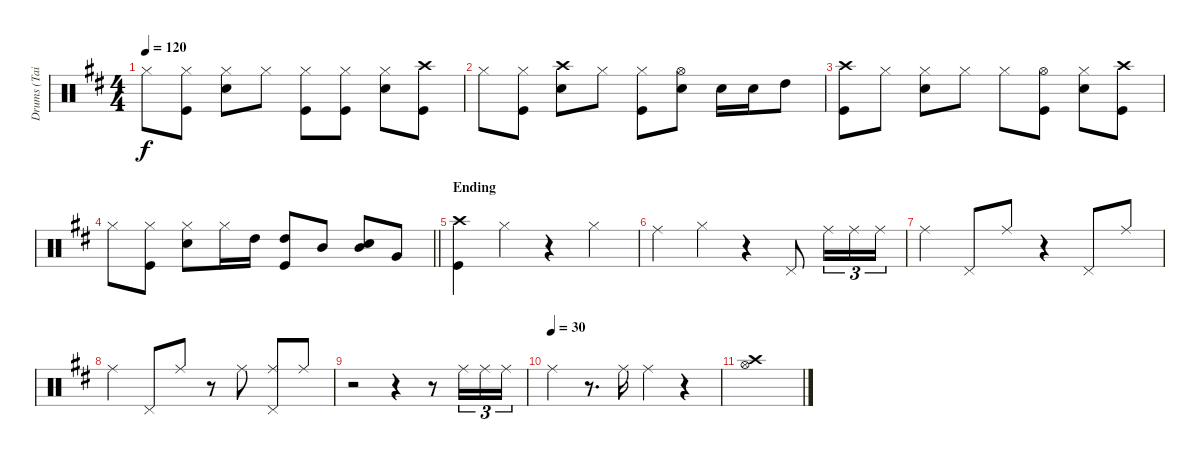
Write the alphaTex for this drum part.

\track ("Drums (Tainaka Ritsu)" "Drums (Tai") {instrument percussion}
\staff {score}
\articulation defaults
\ts (4 4)
\tempo 120
\clef neutral
\ks d "Hi-Hat (closed)".8{dy f}
("Hi-Hat (closed)" "Kick (hit)").8 ("Hi-Hat (closed)" "Snare (hit) 2").8 "Hi-Hat (closed)".8 ("Hi-Hat (closed)" "Kick (hit)").8 ("Hi-Hat (closed)" "Kick (hit)").8 ("Hi-Hat (closed)" "Snare (hit) 2").8 ("Crash high (hit)" "Kick (hit)").8 |
"Hi-Hat (closed)".8 ("Hi-Hat (closed)" "Kick (hit)").8 ("Crash high (hit)" "Snare (hit) 2").8 "Hi-Hat (closed)".8 ("Hi-Hat (closed)" "Kick (hit)").8 ("Hi-Hat (open)" "Snare (hit) 2").8 "Snare (hit) 2".16 "Snare (hit) 2".16 "High Tom (hit)".8 |
("Crash high (hit)" "Kick (hit)").8 "Hi-Hat (closed)".8 ("Hi-Hat (closed)" "Snare (hit) 2").8 "Hi-Hat (closed)".8 "Hi-Hat (closed)".8 ("Hi-Hat (open)" "Kick (hit)").8 ("Hi-Hat (closed)" "Snare (hit) 2").8 ("Crash high (hit)" "Kick (hit)").8 |
\barLineRight lightlight "Hi-Hat (closed)".8
("Hi-Hat (closed)" "Kick (hit)").8 ("Hi-Hat (closed)" "Snare (hit) 2").8 "Hi-Hat (closed)".16 "High Tom (hit)".16 ("High Tom (hit)" "Kick (hit)").8 "Mid Tom (hit)".8 ("Snare (hit) 2" "Mid Tom (hit)").8 "Very Low Tom (hit)".8 |
\section ("" "Ending")
("Crash high (hit)" "Kick (hit)").4 "Hi-Hat (closed)".4 r.4 "Hi-Hat (closed)".4 |
"Ride (middle)".4 "Hi-Hat (closed)".4 r.4 "Pedal Hi-Hat (hit)".8 "Ride (middle)".16{tu (3 2)} "Ride (middle)".16{tu (3 2)} "Ride (middle)".16{tu (3 2)} |
"Ride (middle)".4 "Pedal Hi-Hat (hit)".8 "Ride (middle)".8 r.4 "Pedal Hi-Hat (hit)".8 "Ride (middle)".8 |
"Ride (middle)".4 "Pedal Hi-Hat (hit)".8 "Ride (middle)".8 r.8 "Ride (middle)".8 ("Ride (middle)" "Pedal Hi-Hat (hit)").8 "Ride (middle)".8 |
r.2 r.4 r.8 "Ride (middle)".16{tu (3 2)} "Ride (middle)".16{tu (3 2)} "Ride (middle)".16{tu (3 2)} |
\tempo (30)
"Ride (middle)".4 r.8{d} "Ride (middle)".16 "Ride (middle)".4 r.4 |
("Crash high (hit)" "Hi-Hat (open)").1
